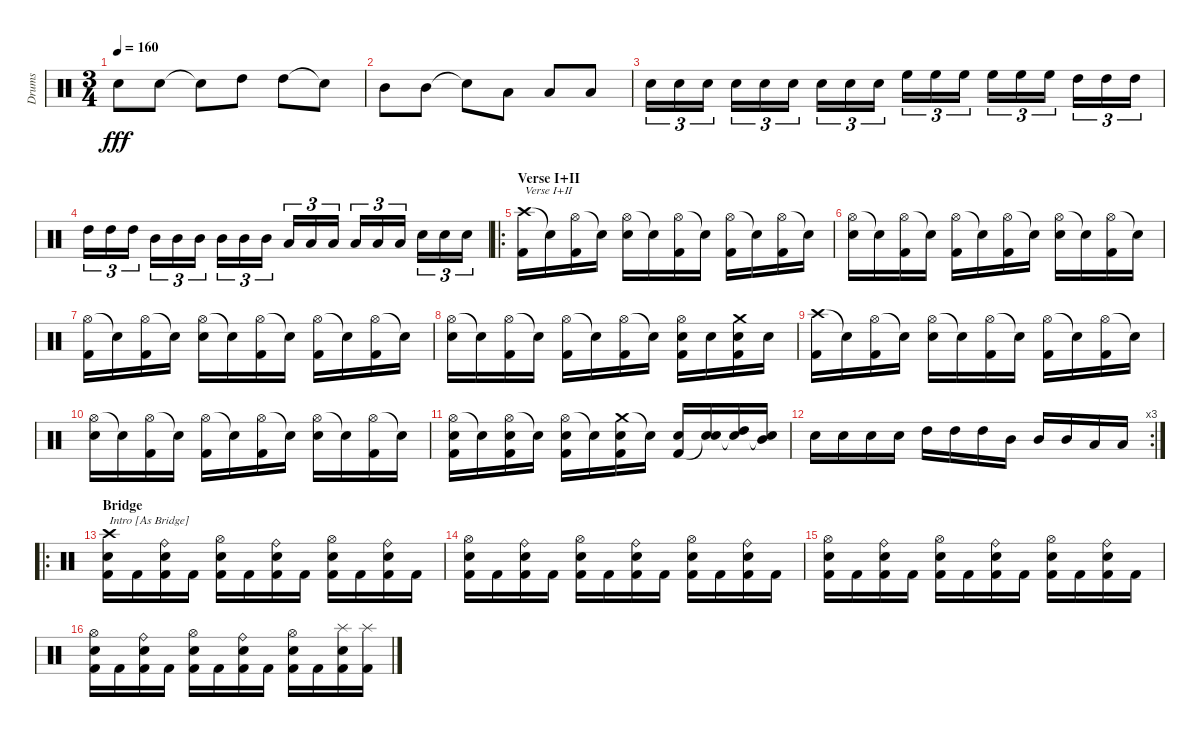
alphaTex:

\track ("Drums" "Drums") {instrument percussion}
\staff {score}
\articulation defaults
\ts (3 4)
\tempo 160
\clef neutral
\ks c "Electric Snare (hit)".8{dy fff} "Electric Snare (hit)".8 "Snare (hit)"{t}.8 "High Tom (hit)".8 "High Tom (hit)".8 "Snare (hit)"{t}.8
|
"Mid Tom (hit)".8 "Mid Tom (hit)".8 "Snare (hit)"{t}.8 "Low Tom (hit)".8 "Low Tom (hit)".8 "Low Tom (hit)".8 |
"Electric Snare (hit)".16{tu (3 2)} "Electric Snare (hit)".16{tu (3 2)} "Electric Snare (hit)".16{tu (3 2)} "Electric Snare (hit)".16{tu (3 2)} "Electric Snare (hit)".16{tu (3 2)} "Electric Snare (hit)".16{tu (3 2)} "Electric Snare (hit)".16{tu (3 2)} "Electric Snare (hit)".16{tu (3 2)} "Electric Snare (hit)".16{tu (3 2)} "High Floor Tom (hit)".16{tu (3 2)} "High Floor Tom (hit)".16{tu (3 2)} "High Floor Tom (hit)".16{tu (3 2)} "High Floor Tom (hit)".16{tu (3 2)} "High Floor Tom (hit)".16{tu (3 2)} "High Floor Tom (hit)".16{tu (3 2)} "High Tom (hit)".16{tu (3 2)} "High Tom (hit)".16{tu (3 2)} "High Tom (hit)".16{tu (3 2)} |
"High Tom (hit)".16{tu (3 2)} "High Tom (hit)".16{tu (3 2)} "High Tom (hit)".16{tu (3 2)} "Mid Tom (hit)".16{tu (3 2)} "Mid Tom (hit)".16{tu (3 2)} "Mid Tom (hit)".16{tu (3 2)} "Mid Tom (hit)".16{tu (3 2)} "Mid Tom (hit)".16{tu (3 2)} "Mid Tom (hit)".16{tu (3 2)} "Low Tom (hit)".16{tu (3 2)} "Low Tom (hit)".16{tu (3 2)} "Low Tom (hit)".16{tu (3 2)} "Low Tom (hit)".16{tu (3 2)} "Low Tom (hit)".16{tu (3 2)} "Low Tom (hit)".16{tu (3 2)} "Electric Snare (hit)".16{tu (3 2)} "Electric Snare (hit)".16{tu (3 2)} "Electric Snare (hit)".16{tu (3 2)} |
\ro
\section ("" "Verse I+II")
("Crash high (hit)" "Kick (hit) 2").16{txt "Verse I+II"} "Snare (hit)"{t}.16 ("Hi-Hat (open)" "Kick (hit) 2").16 "Snare (hit)"{t}.16 ("Hi-Hat (open)" "Electric Snare (hit)").16 "Snare (hit)"{t}.16 ("Hi-Hat (open)" "Kick (hit) 2").16 "Snare (hit)"{t}.16 ("Hi-Hat (open)" "Kick (hit) 2").16 "Snare (hit)"{t}.16 ("Hi-Hat (open)" "Kick (hit) 2").16 "Snare (hit)"{t}.16 |
("Hi-Hat (open)" "Electric Snare (hit)").16 "Snare (hit)"{t}.16 ("Hi-Hat (open)" "Kick (hit) 2").16 "Snare (hit)"{t}.16 ("Hi-Hat (open)" "Kick (hit) 2").16 "Snare (hit)"{t}.16 ("Hi-Hat (open)" "Kick (hit) 2").16 "Snare (hit)"{t}.16 ("Hi-Hat (open)" "Electric Snare (hit)").16 "Snare (hit)"{t}.16 ("Hi-Hat (open)" "Kick (hit) 2").16 "Snare (hit)"{t}.16 |
("Hi-Hat (open)" "Kick (hit) 2").16 "Snare (hit)"{t}.16 ("Hi-Hat (open)" "Kick (hit) 2").16 "Snare (hit)"{t}.16 ("Hi-Hat (open)" "Electric Snare (hit)").16 "Snare (hit)"{t}.16 ("Hi-Hat (open)" "Kick (hit) 2").16 "Snare (hit)"{t}.16 ("Hi-Hat (open)" "Kick (hit) 2").16 "Snare (hit)"{t}.16 ("Hi-Hat (open)" "Kick (hit) 2").16 "Snare (hit)"{t}.16 |
("Hi-Hat (open)" "Electric Snare (hit)").16 "Snare (hit)"{t}.16 ("Hi-Hat (open)" "Kick (hit) 2").16 "Snare (hit)"{t}.16 ("Hi-Hat (open)" "Kick (hit) 2").16 "Snare (hit)"{t}.16 ("Hi-Hat (open)" "Kick (hit) 2").16 "Snare (hit)"{t}.16 ("Hi-Hat (open)" "Electric Snare (hit)" "Kick (hit) 2").16 "Electric Snare (hit)".16 ("Crash medium (hit)" "Electric Snare (hit)" "Kick (hit) 2").16 "Electric Snare (hit)".16 |
("Crash high (hit)" "Kick (hit) 2").16 "Snare (hit)"{t}.16 ("Hi-Hat (open)" "Kick (hit) 2").16 "Snare (hit)"{t}.16 ("Hi-Hat (open)" "Electric Snare (hit)").16 "Snare (hit)"{t}.16 ("Hi-Hat (open)" "Kick (hit) 2").16 "Snare (hit)"{t}.16 ("Hi-Hat (open)" "Kick (hit) 2").16 "Snare (hit)"{t}.16 ("Hi-Hat (open)" "Kick (hit) 2").16 "Snare (hit)"{t}.16 |
("Hi-Hat (open)" "Electric Snare (hit)").16 "Snare (hit)"{t}.16 ("Hi-Hat (open)" "Kick (hit) 2").16 "Snare (hit)"{t}.16 ("Hi-Hat (open)" "Kick (hit) 2").16 "Snare (hit)"{t}.16 ("Hi-Hat (open)" "Kick (hit) 2").16 "Snare (hit)"{t}.16 ("Hi-Hat (open)" "Electric Snare (hit)").16 "Snare (hit)"{t}.16 ("Hi-Hat (open)" "Kick (hit) 2").16 "Snare (hit)"{t}.16 |
("Hi-Hat (open)" "Electric Snare (hit)" "Kick (hit) 2").16 "Snare (hit)"{t}.16 ("Hi-Hat (open)" "Electric Snare (hit)" "Kick (hit) 2").16 "Snare (hit)"{t}.16 ("Hi-Hat (open)" "Electric Snare (hit)" "Kick (hit) 2").16 "Snare (hit)"{t}.16 ("Crash medium (hit)" "Electric Snare (hit)" "Kick (hit) 2").16 "Snare (hit)"{t}.16 ("Electric Snare (hit)" "Kick (hit) 2").16 ("Electric Snare (hit)" "Snare (hit)"{t}).16 ("High Tom (hit)" "Snare (hit)"{t}).16 ("Mid Tom (hit)" "Snare (hit)"{t}).16 |
\rc 3 "Electric Snare (hit)".16 "Electric Snare (hit)".16 "Electric Snare (hit)".16 "Electric Snare (hit)".16 "High Tom (hit)".16 "High Tom (hit)".16 "High Tom (hit)".16 "Mid Tom (hit)".16 "Mid Tom (hit)".16 "Mid Tom (hit)".16 "Low Tom (hit)".16 "Low Tom (hit)".16
|
\ro
\section ("" "Bridge")
("Crash high (hit)" "Electric Snare (hit)" "Kick (hit) 2").16{txt "Intro [As Bridge]"} "Kick (hit) 2".16 ("Ride (bell)" "Electric Snare (hit)" "Kick (hit) 2").16 "Kick (hit) 2".16 ("Hi-Hat (open)" "Electric Snare (hit)" "Kick (hit) 2").16 "Kick (hit) 2".16 ("Ride (bell)" "Electric Snare (hit)" "Kick (hit) 2").16 "Kick (hit) 2".16 ("Hi-Hat (open)" "Electric Snare (hit)" "Kick (hit) 2").16 "Kick (hit) 2".16 ("Ride (bell)" "Electric Snare (hit)" "Kick (hit) 2").16 "Kick (hit) 2".16 |
("Hi-Hat (open)" "Electric Snare (hit)" "Kick (hit) 2").16 "Kick (hit) 2".16 ("Ride (bell)" "Electric Snare (hit)" "Kick (hit) 2").16 "Kick (hit) 2".16 ("Hi-Hat (open)" "Electric Snare (hit)" "Kick (hit) 2").16 "Kick (hit) 2".16 ("Ride (bell)" "Electric Snare (hit)" "Kick (hit) 2").16 "Kick (hit) 2".16 ("Hi-Hat (open)" "Electric Snare (hit)" "Kick (hit) 2").16 "Kick (hit) 2".16 ("Ride (bell)" "Electric Snare (hit)" "Kick (hit) 2").16 "Kick (hit) 2".16 |
("Hi-Hat (open)" "Electric Snare (hit)" "Kick (hit) 2").16 "Kick (hit) 2".16 ("Ride (bell)" "Electric Snare (hit)" "Kick (hit) 2").16 "Kick (hit) 2".16 ("Hi-Hat (open)" "Electric Snare (hit)" "Kick (hit) 2").16 "Kick (hit) 2".16 ("Ride (bell)" "Electric Snare (hit)" "Kick (hit) 2").16 "Kick (hit) 2".16 ("Hi-Hat (open)" "Electric Snare (hit)" "Kick (hit) 2").16 "Kick (hit) 2".16 ("Ride (bell)" "Electric Snare (hit)" "Kick (hit) 2").16 "Kick (hit) 2".16 |
("Hi-Hat (open)" "Electric Snare (hit)" "Kick (hit) 2").16 "Kick (hit) 2".16 ("Ride (bell)" "Electric Snare (hit)" "Kick (hit) 2").16 "Kick (hit) 2".16 ("Hi-Hat (open)" "Electric Snare (hit)" "Kick (hit) 2").16 "Kick (hit) 2".16 ("Ride (bell)" "Electric Snare (hit)" "Kick (hit) 2").16 "Kick (hit) 2".16 ("Hi-Hat (open)" "Electric Snare (hit)" "Kick (hit) 2").16 "Kick (hit) 2".16 ("Splash (hit)" "Electric Snare (hit)" "Kick (hit) 2").16 ("Splash (hit)" "Kick (hit) 2").16
